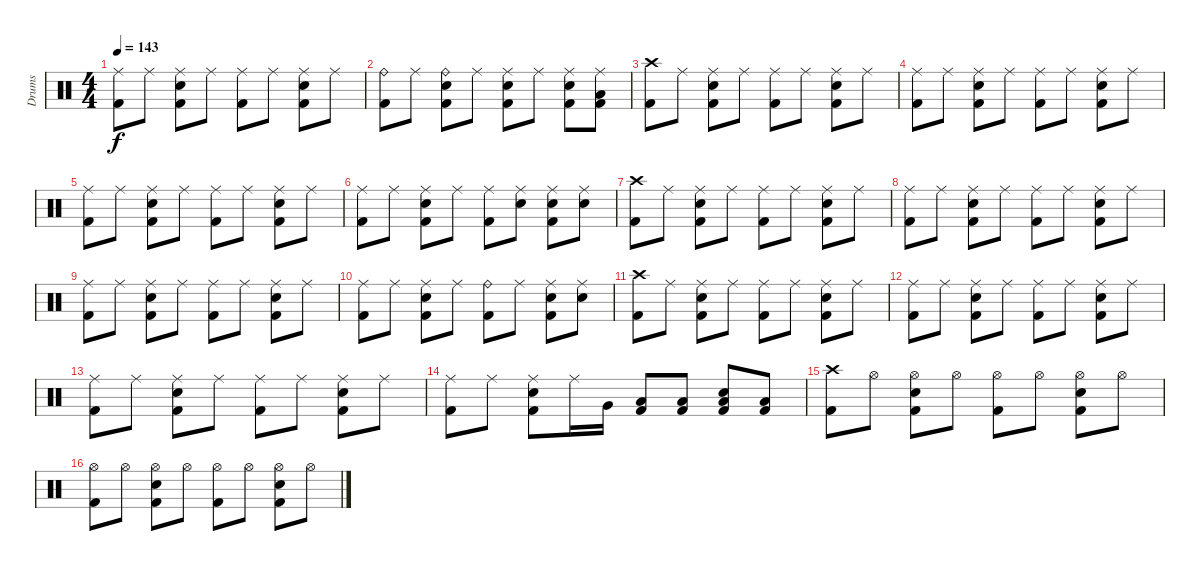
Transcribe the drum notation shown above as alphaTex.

\track ("Drums" "Drums") {instrument percussion}
\staff {score}
\articulation defaults
\ts (4 4)
\tempo 143
\clef neutral
\ks c
("Ride (middle)" "Kick (hit) 2").8{dy f} "Ride (middle)".8 ("Ride (middle)" "Electric Snare (hit)" "Kick (hit) 2").8 "Ride (middle)".8 ("Ride (middle)" "Kick (hit) 2").8 "Ride (middle)".8 ("Ride (middle)" "Electric Snare (hit)" "Kick (hit) 2").8 "Ride (middle)".8 |
("Ride (bell)" "Kick (hit) 2").8 "Ride (middle)".8 ("Ride (bell)" "Electric Snare (hit)" "Kick (hit) 2").8 "Ride (middle)".8 ("Ride (middle)" "Electric Snare (hit)" "Kick (hit) 2").8 "Ride (middle)".8 ("Ride (middle)" "Electric Snare (hit)" "Kick (hit) 2").8 ("Ride (middle)" "Low Floor Tom (hit)" "Kick (hit) 2").8 |
("Crash high (hit)" "Kick (hit) 2").8 "Ride (middle)".8 ("Ride (middle)" "Electric Snare (hit)" "Kick (hit) 2").8 "Ride (middle)".8 ("Ride (middle)" "Kick (hit) 2").8 "Ride (middle)".8 ("Ride (middle)" "Electric Snare (hit)" "Kick (hit) 2").8 "Ride (middle)".8 |
("Ride (middle)" "Kick (hit) 2").8 "Ride (middle)".8 ("Ride (middle)" "Electric Snare (hit)" "Kick (hit) 2").8 "Ride (middle)".8 ("Ride (middle)" "Kick (hit) 2").8 "Ride (middle)".8 ("Ride (middle)" "Electric Snare (hit)" "Kick (hit) 2").8 "Ride (middle)".8 |
("Ride (middle)" "Kick (hit) 2").8 "Ride (middle)".8 ("Ride (middle)" "Electric Snare (hit)" "Kick (hit) 2").8 "Ride (middle)".8 ("Ride (middle)" "Kick (hit) 2").8 "Ride (middle)".8 ("Ride (middle)" "Electric Snare (hit)" "Kick (hit) 2").8 "Ride (middle)".8 |
("Ride (middle)" "Kick (hit) 2").8 "Ride (middle)".8 ("Ride (middle)" "Electric Snare (hit)" "Kick (hit) 2").8 "Ride (middle)".8 ("Ride (middle)" "Kick (hit) 2").8 ("Ride (middle)" "Electric Snare (hit)").8 ("Ride (middle)" "Electric Snare (hit)" "Kick (hit) 2").8 ("Ride (middle)" "Electric Snare (hit)").8 |
("Crash high (hit)" "Kick (hit) 2").8 "Ride (middle)".8 ("Ride (middle)" "Electric Snare (hit)" "Kick (hit) 2").8 "Ride (middle)".8 ("Ride (middle)" "Kick (hit) 2").8 "Ride (middle)".8 ("Ride (middle)" "Electric Snare (hit)" "Kick (hit) 2").8 "Ride (middle)".8 |
("Ride (middle)" "Kick (hit) 2").8 "Ride (middle)".8 ("Ride (middle)" "Electric Snare (hit)" "Kick (hit) 2").8 "Ride (middle)".8 ("Ride (middle)" "Kick (hit) 2").8 "Ride (middle)".8 ("Ride (middle)" "Electric Snare (hit)" "Kick (hit) 2").8 "Ride (middle)".8 |
("Ride (middle)" "Kick (hit) 2").8 "Ride (middle)".8 ("Ride (middle)" "Electric Snare (hit)" "Kick (hit) 2").8 "Ride (middle)".8 ("Ride (middle)" "Kick (hit) 2").8 "Ride (middle)".8 ("Ride (middle)" "Electric Snare (hit)" "Kick (hit) 2").8 "Ride (middle)".8 |
("Ride (middle)" "Kick (hit) 2").8 "Ride (middle)".8 ("Ride (middle)" "Electric Snare (hit)" "Kick (hit) 2").8 "Ride (middle)".8 ("Ride (bell)" "Kick (hit) 2").8 "Ride (middle)".8 ("Ride (middle)" "Electric Snare (hit)" "Kick (hit) 2").8 ("Ride (middle)" "Electric Snare (hit)").8 |
("Crash high (hit)" "Kick (hit) 2").8 "Ride (middle)".8 ("Ride (middle)" "Electric Snare (hit)" "Kick (hit) 2").8 "Ride (middle)".8 ("Ride (middle)" "Kick (hit) 2").8 "Ride (middle)".8 ("Ride (middle)" "Electric Snare (hit)" "Kick (hit) 2").8 "Ride (middle)".8 |
("Ride (middle)" "Kick (hit) 2").8 "Ride (middle)".8 ("Ride (middle)" "Electric Snare (hit)" "Kick (hit) 2").8 "Ride (middle)".8 ("Ride (middle)" "Kick (hit) 2").8 "Ride (middle)".8 ("Ride (middle)" "Electric Snare (hit)" "Kick (hit) 2").8 "Ride (middle)".8 |
("Ride (middle)" "Kick (hit) 2").8 "Ride (middle)".8 ("Ride (middle)" "Electric Snare (hit)" "Kick (hit) 2").8 "Ride (middle)".8 ("Ride (middle)" "Kick (hit) 2").8 "Ride (middle)".8 ("Ride (middle)" "Electric Snare (hit)" "Kick (hit) 2").8 "Ride (middle)".8 |
("Ride (middle)" "Kick (hit) 2").8 "Ride (middle)".8 ("Ride (middle)" "Electric Snare (hit)" "Kick (hit) 2").8 "Ride (middle)".16 "Very Low Tom (hit)".16 ("Low Floor Tom (hit)" "Kick (hit) 2").8 ("Low Floor Tom (hit)" "Kick (hit) 2").8 ("Electric Snare (hit)" "Low Floor Tom (hit)" "Kick (hit) 2").8 ("Low Floor Tom (hit)" "Kick (hit) 2").8 |
("Crash high (hit)" "Kick (hit) 2").8 "Hi-Hat (open)".8 ("Hi-Hat (open)" "Electric Snare (hit)" "Kick (hit) 2").8 "Hi-Hat (open)".8 ("Hi-Hat (open)" "Kick (hit) 2").8 "Hi-Hat (open)".8 ("Hi-Hat (open)" "Electric Snare (hit)" "Kick (hit) 2").8 "Hi-Hat (open)".8 |
("Hi-Hat (open)" "Kick (hit) 2").8 "Hi-Hat (open)".8 ("Hi-Hat (open)" "Electric Snare (hit)" "Kick (hit) 2").8 "Hi-Hat (open)".8 ("Hi-Hat (open)" "Kick (hit) 2").8 "Hi-Hat (open)".8 ("Hi-Hat (open)" "Electric Snare (hit)" "Kick (hit) 2").8 "Hi-Hat (open)".8
